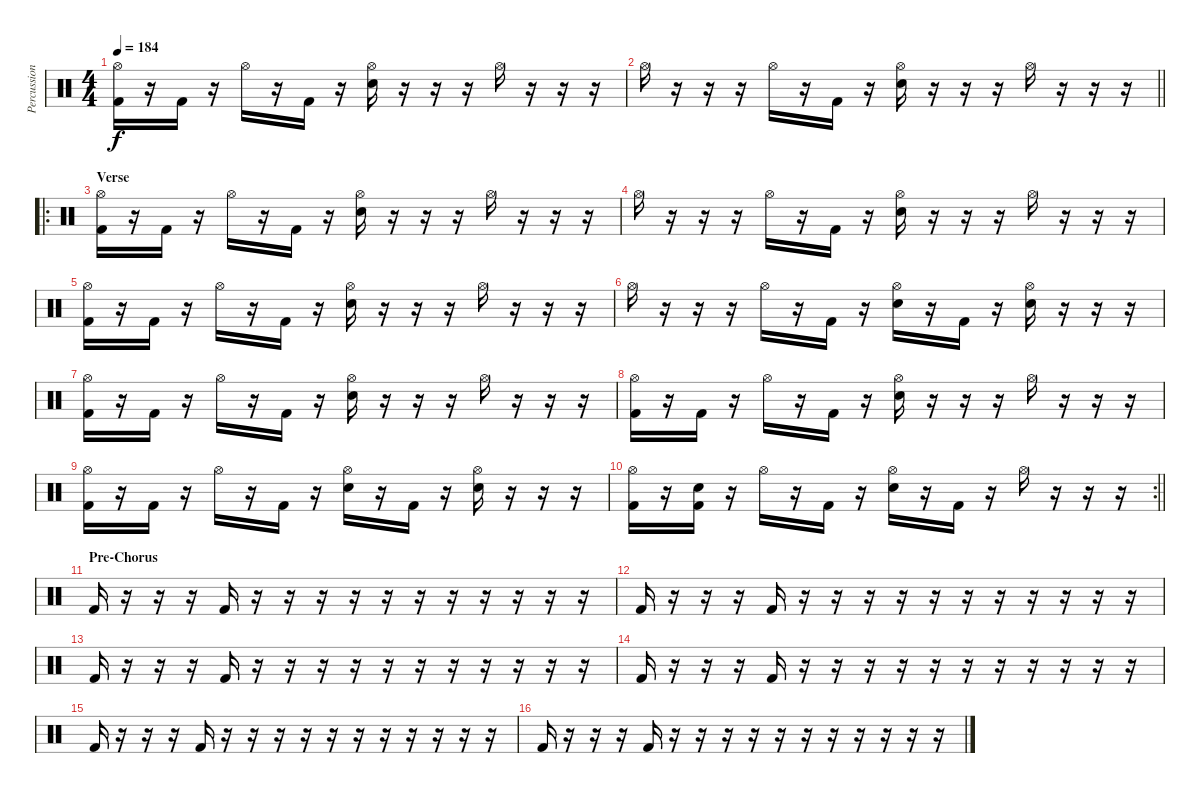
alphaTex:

\track ("Percussion" "Percussion") {instrument percussion}
\staff {score}
\articulation defaults
\ts (4 4)
\tempo 184
\clef neutral
\ks c
("Hi-Hat (open)" "Kick (hit) 2").16{dy f} r.16 "Kick (hit) 2".16 r.16 "Hi-Hat (open)".16 r.16 "Kick (hit) 2".16 r.16 ("Hi-Hat (open)" "Electric Snare (hit)").16 r.16 r.16 r.16 "Hi-Hat (open)".16 r.16 r.16 r.16 |
\barLineRight lightlight "Hi-Hat (open)".16
r.16 r.16 r.16 "Hi-Hat (open)".16 r.16 "Kick (hit) 2".16 r.16 ("Hi-Hat (open)" "Electric Snare (hit)").16 r.16 r.16 r.16 "Hi-Hat (open)".16 r.16 r.16 r.16 |
\ro
\section ("" "Verse")
("Hi-Hat (open)" "Kick (hit) 2").16 r.16 "Kick (hit) 2".16 r.16 "Hi-Hat (open)".16 r.16 "Kick (hit) 2".16 r.16 ("Hi-Hat (open)" "Electric Snare (hit)").16 r.16 r.16 r.16 "Hi-Hat (open)".16 r.16 r.16 r.16 |
"Hi-Hat (open)".16 r.16 r.16 r.16 "Hi-Hat (open)".16 r.16 "Kick (hit) 2".16 r.16 ("Hi-Hat (open)" "Electric Snare (hit)").16 r.16 r.16 r.16 "Hi-Hat (open)".16 r.16 r.16 r.16 |
("Hi-Hat (open)" "Kick (hit) 2").16 r.16 "Kick (hit) 2".16 r.16 "Hi-Hat (open)".16 r.16 "Kick (hit) 2".16 r.16 ("Hi-Hat (open)" "Electric Snare (hit)").16 r.16 r.16 r.16 "Hi-Hat (open)".16 r.16 r.16 r.16 |
"Hi-Hat (open)".16 r.16 r.16 r.16 "Hi-Hat (open)".16 r.16 "Kick (hit) 2".16 r.16 ("Hi-Hat (open)" "Electric Snare (hit)").16 r.16 "Kick (hit) 2".16 r.16 ("Hi-Hat (open)" "Electric Snare (hit)").16 r.16 r.16 r.16 |
("Hi-Hat (open)" "Kick (hit) 2").16 r.16 "Kick (hit) 2".16 r.16 "Hi-Hat (open)".16 r.16 "Kick (hit) 2".16 r.16 ("Hi-Hat (open)" "Electric Snare (hit)").16 r.16 r.16 r.16 "Hi-Hat (open)".16 r.16 r.16 r.16 |
("Hi-Hat (open)" "Kick (hit) 2").16 r.16 "Kick (hit) 2".16 r.16 "Hi-Hat (open)".16 r.16 "Kick (hit) 2".16 r.16 ("Hi-Hat (open)" "Electric Snare (hit)").16 r.16 r.16 r.16 "Hi-Hat (open)".16 r.16 r.16 r.16 |
("Hi-Hat (open)" "Kick (hit) 2").16 r.16 "Kick (hit) 2".16 r.16 "Hi-Hat (open)".16 r.16 "Kick (hit) 2".16 r.16 ("Hi-Hat (open)" "Electric Snare (hit)").16 r.16 "Kick (hit) 2".16 r.16 ("Hi-Hat (open)" "Electric Snare (hit)").16 r.16 r.16 r.16 |
\rc 2
\barLineRight lightlight
("Hi-Hat (open)" "Kick (hit) 2").16 r.16 ("Electric Snare (hit)" "Kick (hit) 2").16 r.16 "Hi-Hat (open)".16 r.16 "Kick (hit) 2".16 r.16 ("Hi-Hat (open)" "Electric Snare (hit)").16 r.16 "Kick (hit) 2".16 r.16 "Hi-Hat (open)".16 r.16 r.16 r.16 |
\section ("" "Pre-Chorus")
"Kick (hit) 2".16 r.16 r.16 r.16 "Kick (hit) 2".16 r.16 r.16 r.16 r.16 r.16 r.16 r.16 r.16 r.16 r.16 r.16 |
"Kick (hit) 2".16 r.16 r.16 r.16 "Kick (hit) 2".16 r.16 r.16 r.16 r.16 r.16 r.16 r.16 r.16 r.16 r.16 r.16 |
"Kick (hit) 2".16 r.16 r.16 r.16 "Kick (hit) 2".16 r.16 r.16 r.16 r.16 r.16 r.16 r.16 r.16 r.16 r.16 r.16 |
"Kick (hit) 2".16 r.16 r.16 r.16 "Kick (hit) 2".16 r.16 r.16 r.16 r.16 r.16 r.16 r.16 r.16 r.16 r.16 r.16 |
"Kick (hit) 2".16 r.16 r.16 r.16 "Kick (hit) 2".16 r.16 r.16 r.16 r.16 r.16 r.16 r.16 r.16 r.16 r.16 r.16 |
"Kick (hit) 2".16 r.16 r.16 r.16 "Kick (hit) 2".16 r.16 r.16 r.16 r.16 r.16 r.16 r.16 r.16 r.16 r.16 r.16
